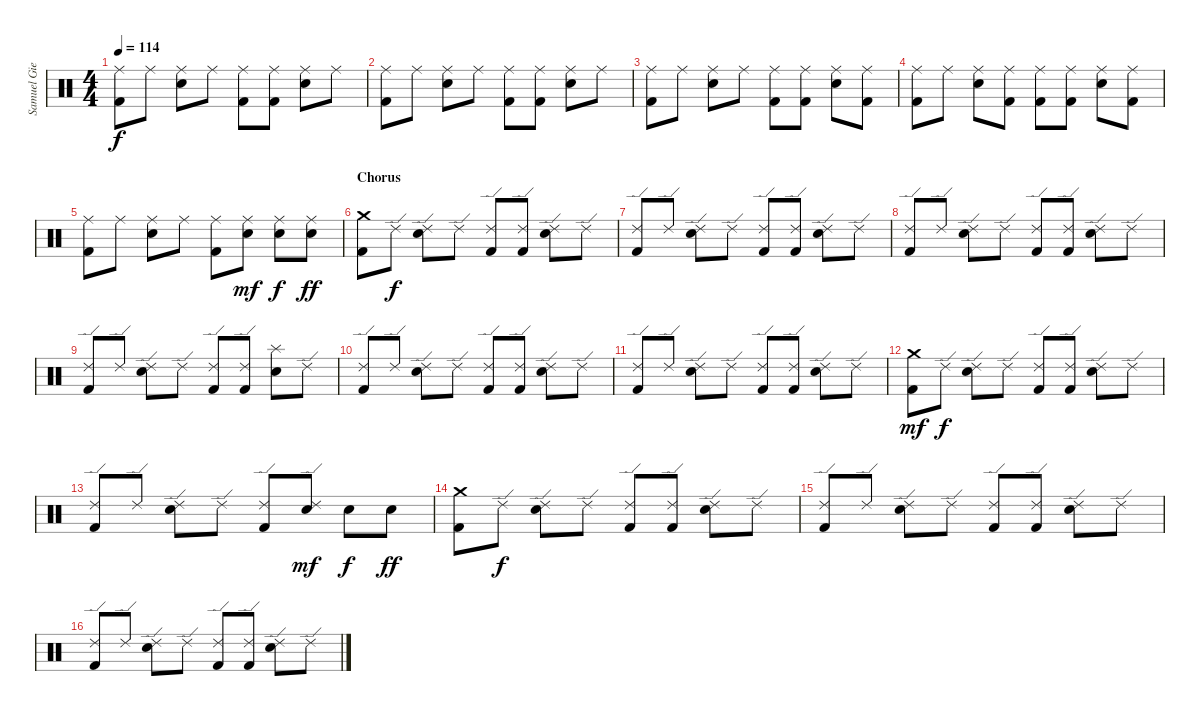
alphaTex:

\track ("Samuel Giers - Drum" "Samuel Gie") {instrument percussion}
\staff {score}
\articulation defaults
\ts (4 4)
\tempo 114
\clef neutral
\ks c
("Ride (middle)" "Kick (hit) 2").8{dy f} "Ride (middle)".8 ("Ride (middle)" "Snare (hit) 2").8 "Ride (middle)".8 ("Ride (middle)" "Kick (hit) 2").8 ("Ride (middle)" "Kick (hit) 2").8 ("Ride (middle)" "Snare (hit) 2").8 "Ride (middle)".8 |
("Ride (middle)" "Kick (hit) 2").8 "Ride (middle)".8 ("Ride (middle)" "Snare (hit) 2").8 "Ride (middle)".8 ("Ride (middle)" "Kick (hit) 2").8 ("Ride (middle)" "Kick (hit) 2").8 ("Ride (middle)" "Snare (hit) 2").8 "Ride (middle)".8 |
("Ride (middle)" "Kick (hit) 2").8 "Ride (middle)".8 ("Ride (middle)" "Snare (hit) 2").8 "Ride (middle)".8 ("Ride (middle)" "Kick (hit) 2").8 ("Ride (middle)" "Kick (hit) 2").8 ("Ride (middle)" "Snare (hit) 2").8 ("Ride (middle)" "Kick (hit) 2").8 |
("Ride (middle)" "Kick (hit) 2").8 "Ride (middle)".8 ("Ride (middle)" "Snare (hit) 2").8 ("Ride (middle)" "Kick (hit) 2").8 ("Ride (middle)" "Kick (hit) 2").8 ("Ride (middle)" "Kick (hit) 2").8 ("Ride (middle)" "Snare (hit) 2").8 ("Ride (middle)" "Kick (hit) 2").8 |
("Ride (middle)" "Kick (hit) 2").8 "Ride (middle)".8 ("Ride (middle)" "Snare (hit) 2").8 "Ride (middle)".8 ("Ride (middle)" "Kick (hit) 2").8 ("Ride (middle)" "Snare (hit) 2").8{dy mf} ("Ride (middle)" "Snare (hit) 2").8{dy f} ("Ride (middle)" "Snare (hit) 2").8{dy ff} |
\section ("" "Chorus")
("Crash medium (hit)" "Kick (hit) 2").8 "Ride (edge) 2".8{dy f} ("Ride (edge) 2" "Snare (hit) 2").8 "Ride (edge) 2".8 ("Ride (edge) 2" "Kick (hit) 2").8 ("Ride (edge) 2" "Kick (hit) 2").8 ("Ride (edge) 2" "Snare (hit) 2").8 "Ride (edge) 2".8 |
("Ride (edge) 2" "Kick (hit) 2").8 "Ride (edge) 2".8 ("Ride (edge) 2" "Snare (hit) 2").8 "Ride (edge) 2".8 ("Ride (edge) 2" "Kick (hit) 2").8 ("Ride (edge) 2" "Kick (hit) 2").8 ("Ride (edge) 2" "Snare (hit) 2").8 "Ride (edge) 2".8 |
("Ride (edge) 2" "Kick (hit) 2").8 "Ride (edge) 2".8 ("Ride (edge) 2" "Snare (hit) 2").8 "Ride (edge) 2".8 ("Ride (edge) 2" "Kick (hit) 2").8 ("Ride (edge) 2" "Kick (hit) 2").8 ("Ride (edge) 2" "Snare (hit) 2").8 "Ride (edge) 2".8 |
("Ride (edge) 2" "Kick (hit) 2").8 "Ride (edge) 2".8 ("Ride (edge) 2" "Snare (hit) 2").8 "Ride (edge) 2".8 ("Ride (edge) 2" "Kick (hit) 2").8 ("Ride (edge) 2" "Kick (hit) 2").8 ("Splash (hit)" "Snare (hit) 2").8 "Ride (edge) 2".8 |
("Ride (edge) 2" "Kick (hit) 2").8 "Ride (edge) 2".8 ("Ride (edge) 2" "Snare (hit) 2").8 "Ride (edge) 2".8 ("Ride (edge) 2" "Kick (hit) 2").8 ("Ride (edge) 2" "Kick (hit) 2").8 ("Ride (edge) 2" "Snare (hit) 2").8 "Ride (edge) 2".8 |
("Ride (edge) 2" "Kick (hit) 2").8 "Ride (edge) 2".8 ("Ride (edge) 2" "Snare (hit) 2").8 "Ride (edge) 2".8 ("Ride (edge) 2" "Kick (hit) 2").8 ("Ride (edge) 2" "Kick (hit) 2").8 ("Ride (edge) 2" "Snare (hit) 2").8 "Ride (edge) 2".8 |
("Crash medium (hit)" "Kick (hit) 2").8{dy mf} "Ride (edge) 2".8{dy f} ("Ride (edge) 2" "Snare (hit) 2").8 "Ride (edge) 2".8 ("Ride (edge) 2" "Kick (hit) 2").8 ("Ride (edge) 2" "Kick (hit) 2").8 ("Ride (edge) 2" "Snare (hit) 2").8 "Ride (edge) 2".8 |
("Ride (edge) 2" "Kick (hit) 2").8 "Ride (edge) 2".8 ("Ride (edge) 2" "Snare (hit) 2").8 "Ride (edge) 2".8 ("Ride (edge) 2" "Kick (hit) 2").8 ("Ride (edge) 2" "Snare (hit) 2").8{dy mf} "Snare (hit) 2".8{dy f} "Snare (hit) 2".8{dy ff} |
("Crash medium (hit)" "Kick (hit) 2").8 "Ride (edge) 2".8{dy f} ("Ride (edge) 2" "Snare (hit) 2").8 "Ride (edge) 2".8 ("Ride (edge) 2" "Kick (hit) 2").8 ("Ride (edge) 2" "Kick (hit) 2").8 ("Ride (edge) 2" "Snare (hit) 2").8 "Ride (edge) 2".8 |
("Ride (edge) 2" "Kick (hit) 2").8 "Ride (edge) 2".8 ("Ride (edge) 2" "Snare (hit) 2").8 "Ride (edge) 2".8 ("Ride (edge) 2" "Kick (hit) 2").8 ("Ride (edge) 2" "Kick (hit) 2").8 ("Ride (edge) 2" "Snare (hit) 2").8 "Ride (edge) 2".8 |
("Ride (edge) 2" "Kick (hit) 2").8 "Ride (edge) 2".8 ("Ride (edge) 2" "Snare (hit) 2").8 "Ride (edge) 2".8 ("Ride (edge) 2" "Kick (hit) 2").8 ("Ride (edge) 2" "Kick (hit) 2").8 ("Ride (edge) 2" "Snare (hit) 2").8 "Ride (edge) 2".8
